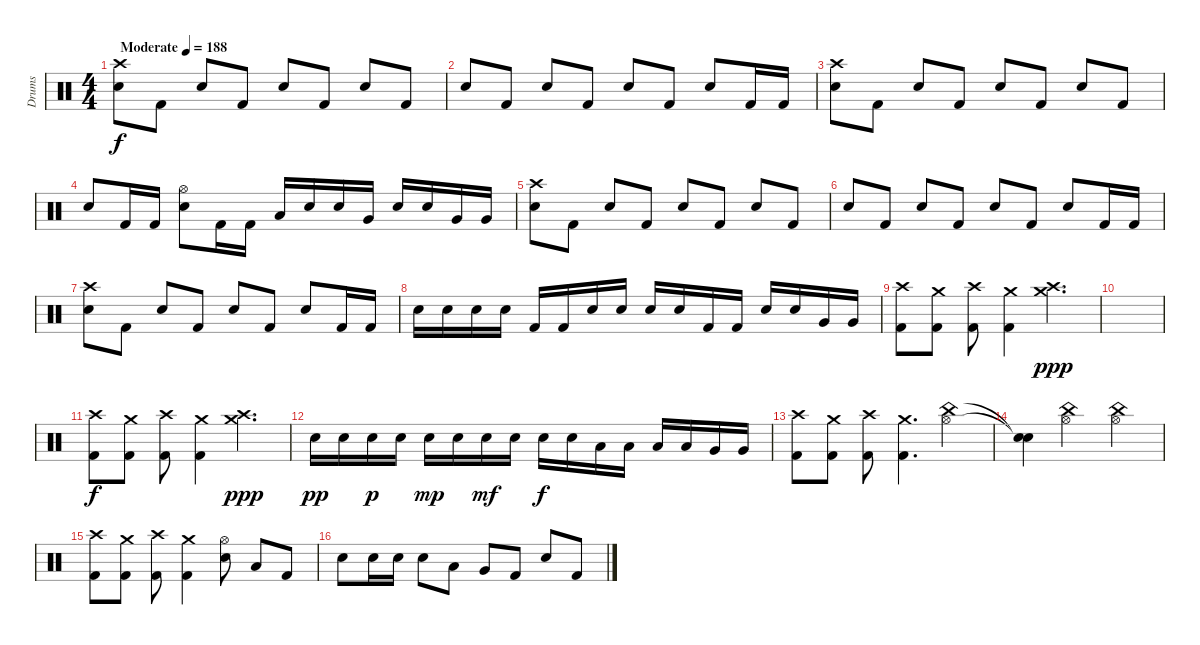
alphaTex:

\track ("Drums" "Drums") {instrument percussion}
\staff {score}
\articulation defaults
\ts (4 4)
\tempo (188 "Moderate")
\clef neutral
\ks c
("Crash high (hit)" "Electric Snare (hit)").8{dy f} "Kick (hit) 2".8 "Electric Snare (hit)".8 "Kick (hit) 2".8 "Electric Snare (hit)".8 "Kick (hit) 2".8 "Electric Snare (hit)".8 "Kick (hit) 2".8 |
"Electric Snare (hit)".8 "Kick (hit) 2".8 "Electric Snare (hit)".8 "Kick (hit) 2".8 "Electric Snare (hit)".8 "Kick (hit) 2".8 "Electric Snare (hit)".8 "Kick (hit) 2".16 "Kick (hit) 2".16 |
("Crash high (hit)" "Electric Snare (hit)").8 "Kick (hit) 2".8 "Electric Snare (hit)".8 "Kick (hit) 2".8 "Electric Snare (hit)".8 "Kick (hit) 2".8 "Electric Snare (hit)".8 "Kick (hit) 2".8 |
"Electric Snare (hit)".8 "Kick (hit) 2".16 "Kick (hit) 2".16 ("Hi-Hat (open)" "Electric Snare (hit)").8 "Kick (hit) 2".16 "Kick (hit) 2".16 "Low Tom (hit)".16 "Electric Snare (hit)".16 "Electric Snare (hit)".16 "Very Low Tom (hit)".16 "Electric Snare (hit)".16 "Electric Snare (hit)".16 "Very Low Tom (hit)".16 "Very Low Tom (hit)".16 |
("Crash high (hit)" "Electric Snare (hit)").8 "Kick (hit) 2".8 "Electric Snare (hit)".8 "Kick (hit) 2".8 "Electric Snare (hit)".8 "Kick (hit) 2".8 "Electric Snare (hit)".8 "Kick (hit) 2".8 |
"Electric Snare (hit)".8 "Kick (hit) 2".8 "Electric Snare (hit)".8 "Kick (hit) 2".8 "Electric Snare (hit)".8 "Kick (hit) 2".8 "Electric Snare (hit)".8 "Kick (hit) 2".16 "Kick (hit) 2".16 |
("Crash high (hit)" "Electric Snare (hit)").8 "Kick (hit) 2".8 "Electric Snare (hit)".8 "Kick (hit) 2".8 "Electric Snare (hit)".8 "Kick (hit) 2".8 "Electric Snare (hit)".8 "Kick (hit) 2".16 "Kick (hit) 2".16 |
"Electric Snare (hit)".16 "Electric Snare (hit)".16 "Electric Snare (hit)".16 "Electric Snare (hit)".16 "Kick (hit) 2".16 "Kick (hit) 2".16 "Electric Snare (hit)".16 "Electric Snare (hit)".16 "Electric Snare (hit)".16 "Electric Snare (hit)".16 "Kick (hit) 2".16 "Kick (hit) 2".16 "Electric Snare (hit)".16 "Electric Snare (hit)".16 "Very Low Tom (hit)".16 "Very Low Tom (hit)".16 |
("Crash high (hit)" "Kick (hit) 2").8 ("Crash medium (hit)" "Kick (hit) 2").8 ("Crash high (hit)" "Kick (hit) 2").8 ("Crash medium (hit)" "Kick (hit) 2").4 ("Crash high (hit)" "Crash medium (hit)").4{d dy ppp} |
|
("Crash high (hit)" "Kick (hit) 2").8{dy f} ("Crash medium (hit)" "Kick (hit) 2").8 ("Crash high (hit)" "Kick (hit) 2").8 ("Crash medium (hit)" "Kick (hit) 2").4 ("Crash high (hit)" "Crash medium (hit)").4{d dy ppp} |
"Electric Snare (hit)".16{dy pp} "Electric Snare (hit)".16 "Electric Snare (hit)".16{dy p} "Electric Snare (hit)".16 "Electric Snare (hit)".16{dy mp} "Electric Snare (hit)".16 "Electric Snare (hit)".16{dy mf} "Electric Snare (hit)".16 "Electric Snare (hit)".16{dy f} "Electric Snare (hit)".16 "Low Tom (hit)".16 "Low Tom (hit)".16 "Low Tom (hit)".16 "Low Tom (hit)".16 "Very Low Tom (hit)".16 "Very Low Tom (hit)".16 |
("Crash high (hit)" "Kick (hit) 2").8 ("Crash medium (hit)" "Kick (hit) 2").8 ("Crash high (hit)" "Kick (hit) 2").8 ("Crash medium (hit)" "Kick (hit) 2").4{d} ("China (hit)" "Hi-Hat (open)").4 |
("Snare (hit)"{t} "Snare (hit)"{t}).4 ("China (hit)" "Hi-Hat (open)").2 ("China (hit)" "Hi-Hat (open)").4 |
("Crash high (hit)" "Kick (hit) 2").8 ("Crash medium (hit)" "Kick (hit) 2").8 ("Crash high (hit)" "Kick (hit) 2").8 ("Crash medium (hit)" "Kick (hit) 2").4 ("Hi-Hat (open)" "Electric Snare (hit)").8 "Low Tom (hit)".8 "Kick (hit) 2".8 |
"Electric Snare (hit)".8 "Electric Snare (hit)".16 "Electric Snare (hit)".16 "Electric Snare (hit)".8 "Low Tom (hit)".8 "Very Low Tom (hit)".8 "Kick (hit) 2".8 "Electric Snare (hit)".8 "Kick (hit) 2".8
